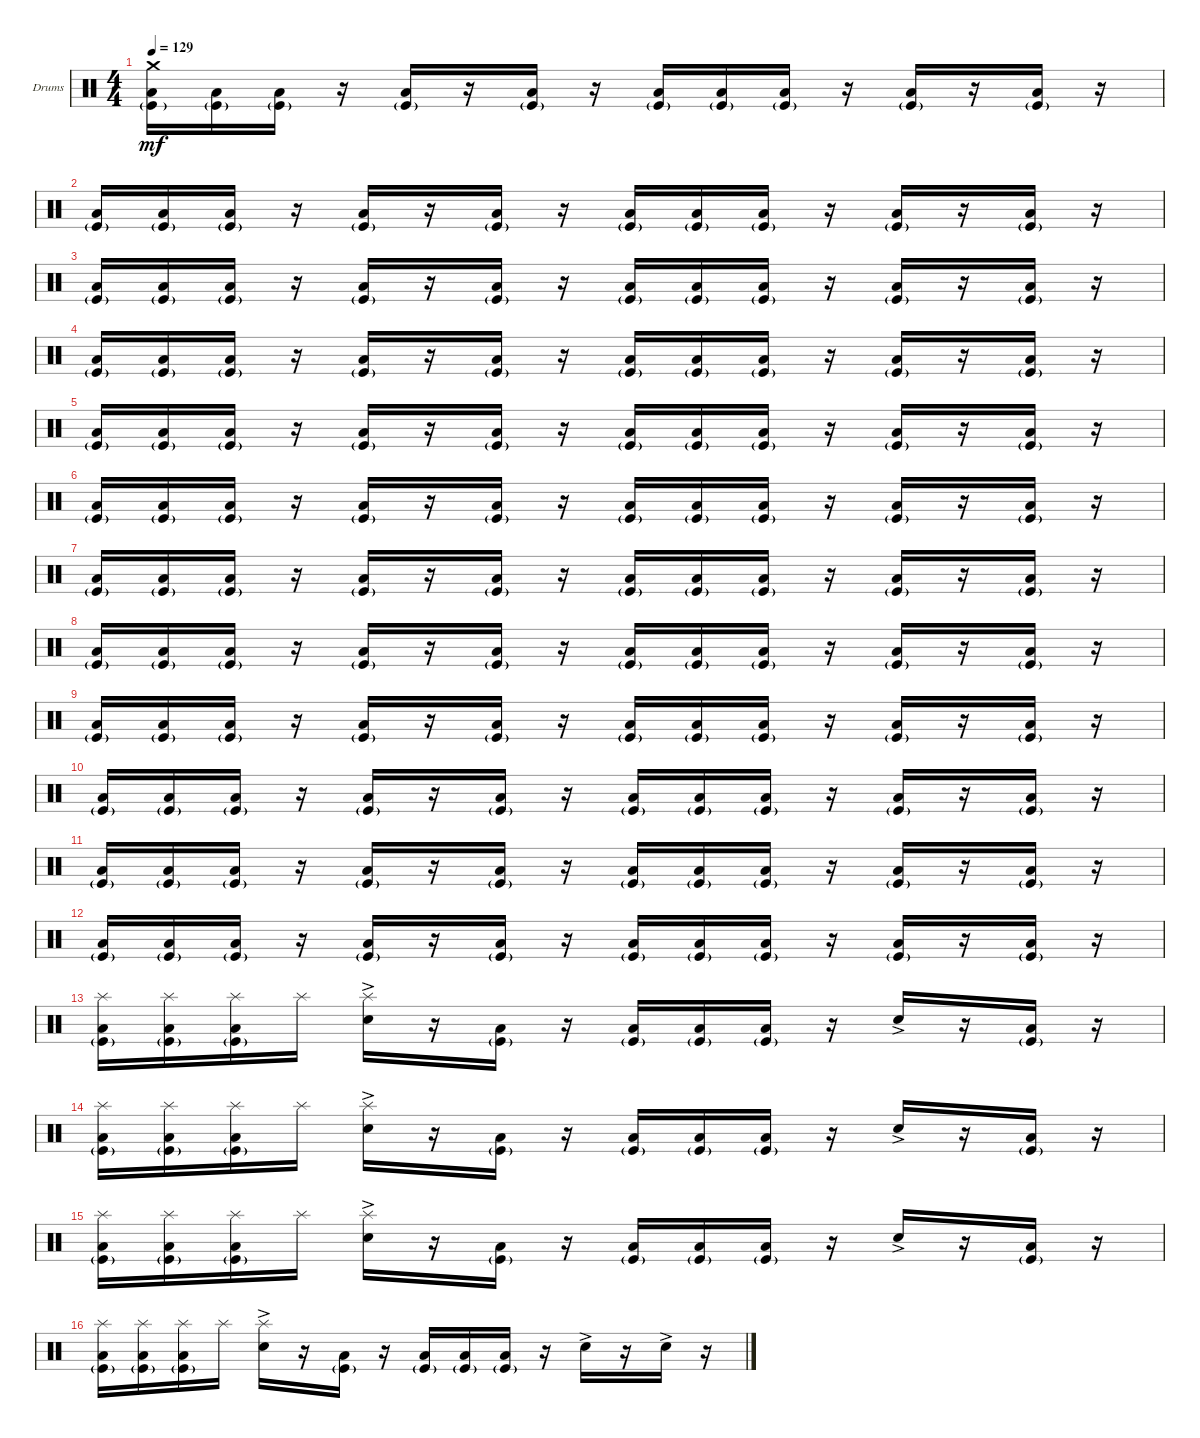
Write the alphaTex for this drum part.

\defaultSystemsLayout 4
\bracketExtendMode groupsimilarinstruments
\firstSystemTrackNameOrientation horizontal
\otherSystemsTrackNameOrientation horizontal
\track ("Drums" "Drums") {instrument percussion}
\staff {score}
\articulation defaults
\ts (4 4)
\tempo 129
\clef neutral
\ks c
("Kick (hit)"{g} "Low Tom (hit)" "Crash medium (hit)").16{dy mf} ("Kick (hit)"{g} "Low Tom (hit)").16 ("Kick (hit)"{g} "Low Tom (hit)").16 r.16 ("Kick (hit)"{g} "Low Tom (hit)").16 r.16 ("Kick (hit)"{g} "Low Tom (hit)").16 r.16 ("Kick (hit)"{g} "Low Tom (hit)").16 ("Kick (hit)"{g} "Low Tom (hit)").16 ("Kick (hit)"{g} "Low Tom (hit)").16 r.16 ("Kick (hit)"{g} "Low Tom (hit)").16 r.16 ("Kick (hit)"{g} "Low Tom (hit)").16 r.16 |
("Kick (hit)"{g} "Low Tom (hit)").16 ("Kick (hit)"{g} "Low Tom (hit)").16 ("Kick (hit)"{g} "Low Tom (hit)").16 r.16 ("Kick (hit)"{g} "Low Tom (hit)").16 r.16 ("Kick (hit)"{g} "Low Tom (hit)").16 r.16 ("Kick (hit)"{g} "Low Tom (hit)").16 ("Kick (hit)"{g} "Low Tom (hit)").16 ("Kick (hit)"{g} "Low Tom (hit)").16 r.16 ("Kick (hit)"{g} "Low Tom (hit)").16 r.16 ("Kick (hit)"{g} "Low Tom (hit)").16 r.16 |
("Kick (hit)"{g} "Low Tom (hit)").16 ("Kick (hit)"{g} "Low Tom (hit)").16 ("Kick (hit)"{g} "Low Tom (hit)").16 r.16 ("Kick (hit)"{g} "Low Tom (hit)").16 r.16 ("Kick (hit)"{g} "Low Tom (hit)").16 r.16 ("Kick (hit)"{g} "Low Tom (hit)").16 ("Kick (hit)"{g} "Low Tom (hit)").16 ("Kick (hit)"{g} "Low Tom (hit)").16 r.16 ("Kick (hit)"{g} "Low Tom (hit)").16 r.16 ("Kick (hit)"{g} "Low Tom (hit)").16 r.16 |
("Kick (hit)"{g} "Low Tom (hit)").16 ("Kick (hit)"{g} "Low Tom (hit)").16 ("Kick (hit)"{g} "Low Tom (hit)").16 r.16 ("Kick (hit)"{g} "Low Tom (hit)").16 r.16 ("Kick (hit)"{g} "Low Tom (hit)").16 r.16 ("Kick (hit)"{g} "Low Tom (hit)").16 ("Kick (hit)"{g} "Low Tom (hit)").16 ("Kick (hit)"{g} "Low Tom (hit)").16 r.16 ("Kick (hit)"{g} "Low Tom (hit)").16 r.16 ("Kick (hit)"{g} "Low Tom (hit)").16 r.16 |
("Kick (hit)"{g} "Low Tom (hit)").16 ("Kick (hit)"{g} "Low Tom (hit)").16 ("Kick (hit)"{g} "Low Tom (hit)").16 r.16 ("Kick (hit)"{g} "Low Tom (hit)").16 r.16 ("Kick (hit)"{g} "Low Tom (hit)").16 r.16 ("Kick (hit)"{g} "Low Tom (hit)").16 ("Kick (hit)"{g} "Low Tom (hit)").16 ("Kick (hit)"{g} "Low Tom (hit)").16 r.16 ("Kick (hit)"{g} "Low Tom (hit)").16 r.16 ("Kick (hit)"{g} "Low Tom (hit)").16 r.16 |
("Kick (hit)"{g} "Low Tom (hit)").16 ("Kick (hit)"{g} "Low Tom (hit)").16 ("Kick (hit)"{g} "Low Tom (hit)").16 r.16 ("Kick (hit)"{g} "Low Tom (hit)").16 r.16 ("Kick (hit)"{g} "Low Tom (hit)").16 r.16 ("Kick (hit)"{g} "Low Tom (hit)").16 ("Kick (hit)"{g} "Low Tom (hit)").16 ("Kick (hit)"{g} "Low Tom (hit)").16 r.16 ("Kick (hit)"{g} "Low Tom (hit)").16 r.16 ("Kick (hit)"{g} "Low Tom (hit)").16 r.16 |
("Kick (hit)"{g} "Low Tom (hit)").16 ("Kick (hit)"{g} "Low Tom (hit)").16 ("Kick (hit)"{g} "Low Tom (hit)").16 r.16 ("Kick (hit)"{g} "Low Tom (hit)").16 r.16 ("Kick (hit)"{g} "Low Tom (hit)").16 r.16 ("Kick (hit)"{g} "Low Tom (hit)").16 ("Kick (hit)"{g} "Low Tom (hit)").16 ("Kick (hit)"{g} "Low Tom (hit)").16 r.16 ("Kick (hit)"{g} "Low Tom (hit)").16 r.16 ("Kick (hit)"{g} "Low Tom (hit)").16 r.16 |
("Kick (hit)"{g} "Low Tom (hit)").16 ("Kick (hit)"{g} "Low Tom (hit)").16 ("Kick (hit)"{g} "Low Tom (hit)").16 r.16 ("Kick (hit)"{g} "Low Tom (hit)").16 r.16 ("Kick (hit)"{g} "Low Tom (hit)").16 r.16 ("Kick (hit)"{g} "Low Tom (hit)").16 ("Kick (hit)"{g} "Low Tom (hit)").16 ("Kick (hit)"{g} "Low Tom (hit)").16 r.16 ("Kick (hit)"{g} "Low Tom (hit)").16 r.16 ("Kick (hit)"{g} "Low Tom (hit)").16 r.16 |
("Kick (hit)"{g} "Low Tom (hit)").16 ("Kick (hit)"{g} "Low Tom (hit)").16 ("Kick (hit)"{g} "Low Tom (hit)").16 r.16 ("Kick (hit)"{g} "Low Tom (hit)").16 r.16 ("Kick (hit)"{g} "Low Tom (hit)").16 r.16 ("Kick (hit)"{g} "Low Tom (hit)").16 ("Kick (hit)"{g} "Low Tom (hit)").16 ("Kick (hit)"{g} "Low Tom (hit)").16 r.16 ("Kick (hit)"{g} "Low Tom (hit)").16 r.16 ("Kick (hit)"{g} "Low Tom (hit)").16 r.16 |
("Kick (hit)"{g} "Low Tom (hit)").16 ("Kick (hit)"{g} "Low Tom (hit)").16 ("Kick (hit)"{g} "Low Tom (hit)").16 r.16 ("Kick (hit)"{g} "Low Tom (hit)").16 r.16 ("Kick (hit)"{g} "Low Tom (hit)").16 r.16 ("Kick (hit)"{g} "Low Tom (hit)").16 ("Kick (hit)"{g} "Low Tom (hit)").16 ("Kick (hit)"{g} "Low Tom (hit)").16 r.16 ("Kick (hit)"{g} "Low Tom (hit)").16 r.16 ("Kick (hit)"{g} "Low Tom (hit)").16 r.16 |
("Kick (hit)"{g} "Low Tom (hit)").16 ("Kick (hit)"{g} "Low Tom (hit)").16 ("Kick (hit)"{g} "Low Tom (hit)").16 r.16 ("Kick (hit)"{g} "Low Tom (hit)").16 r.16 ("Kick (hit)"{g} "Low Tom (hit)").16 r.16 ("Kick (hit)"{g} "Low Tom (hit)").16 ("Kick (hit)"{g} "Low Tom (hit)").16 ("Kick (hit)"{g} "Low Tom (hit)").16 r.16 ("Kick (hit)"{g} "Low Tom (hit)").16 r.16 ("Kick (hit)"{g} "Low Tom (hit)").16 r.16 |
("Kick (hit)"{g} "Low Tom (hit)").16 ("Kick (hit)"{g} "Low Tom (hit)").16 ("Kick (hit)"{g} "Low Tom (hit)").16 r.16 ("Kick (hit)"{g} "Low Tom (hit)").16 r.16 ("Kick (hit)"{g} "Low Tom (hit)").16 r.16 ("Kick (hit)"{g} "Low Tom (hit)").16 ("Kick (hit)"{g} "Low Tom (hit)").16 ("Kick (hit)"{g} "Low Tom (hit)").16 r.16 ("Kick (hit)"{g} "Low Tom (hit)").16 r.16 ("Kick (hit)"{g} "Low Tom (hit)").16 r.16 |
("Kick (hit)"{g} "Low Tom (hit)" "Splash (hit)").16 ("Kick (hit)"{g} "Low Tom (hit)" "Splash (hit)").16 ("Kick (hit)"{g} "Low Tom (hit)" "Splash (hit)").16 "Splash (hit)".16 ("Snare (hit) 2"{ac} "Splash (hit)").16 r.16 ("Kick (hit)"{g} "Low Tom (hit)").16 r.16 ("Kick (hit)"{g} "Low Tom (hit)").16 ("Kick (hit)"{g} "Low Tom (hit)").16 ("Kick (hit)"{g} "Low Tom (hit)").16 r.16 "Snare (hit) 2"{ac}.16 r.16 ("Kick (hit)"{g} "Low Tom (hit)").16 r.16 |
("Kick (hit)"{g} "Low Tom (hit)" "Splash (hit)").16 ("Kick (hit)"{g} "Low Tom (hit)" "Splash (hit)").16 ("Kick (hit)"{g} "Low Tom (hit)" "Splash (hit)").16 "Splash (hit)".16 ("Snare (hit) 2"{ac} "Splash (hit)").16 r.16 ("Kick (hit)"{g} "Low Tom (hit)").16 r.16 ("Kick (hit)"{g} "Low Tom (hit)").16 ("Kick (hit)"{g} "Low Tom (hit)").16 ("Kick (hit)"{g} "Low Tom (hit)").16 r.16 "Snare (hit) 2"{ac}.16 r.16 ("Kick (hit)"{g} "Low Tom (hit)").16 r.16 |
("Kick (hit)"{g} "Low Tom (hit)" "Splash (hit)").16 ("Kick (hit)"{g} "Low Tom (hit)" "Splash (hit)").16 ("Kick (hit)"{g} "Low Tom (hit)" "Splash (hit)").16 "Splash (hit)".16 ("Snare (hit) 2"{ac} "Splash (hit)").16 r.16 ("Kick (hit)"{g} "Low Tom (hit)").16 r.16 ("Kick (hit)"{g} "Low Tom (hit)").16 ("Kick (hit)"{g} "Low Tom (hit)").16 ("Kick (hit)"{g} "Low Tom (hit)").16 r.16 "Snare (hit) 2"{ac}.16 r.16 ("Kick (hit)"{g} "Low Tom (hit)").16 r.16 |
("Kick (hit)"{g} "Low Tom (hit)" "Splash (hit)").16 ("Kick (hit)"{g} "Low Tom (hit)" "Splash (hit)").16 ("Kick (hit)"{g} "Low Tom (hit)" "Splash (hit)").16 "Splash (hit)".16 ("Snare (hit) 2"{ac} "Splash (hit)").16 r.16 ("Kick (hit)"{g} "Low Tom (hit)").16 r.16 ("Kick (hit)"{g} "Low Tom (hit)").16 ("Kick (hit)"{g} "Low Tom (hit)").16 ("Kick (hit)"{g} "Low Tom (hit)").16 r.16 "Snare (hit) 2"{ac}.16 r.16 "Snare (hit) 2"{ac}.16 r.16
